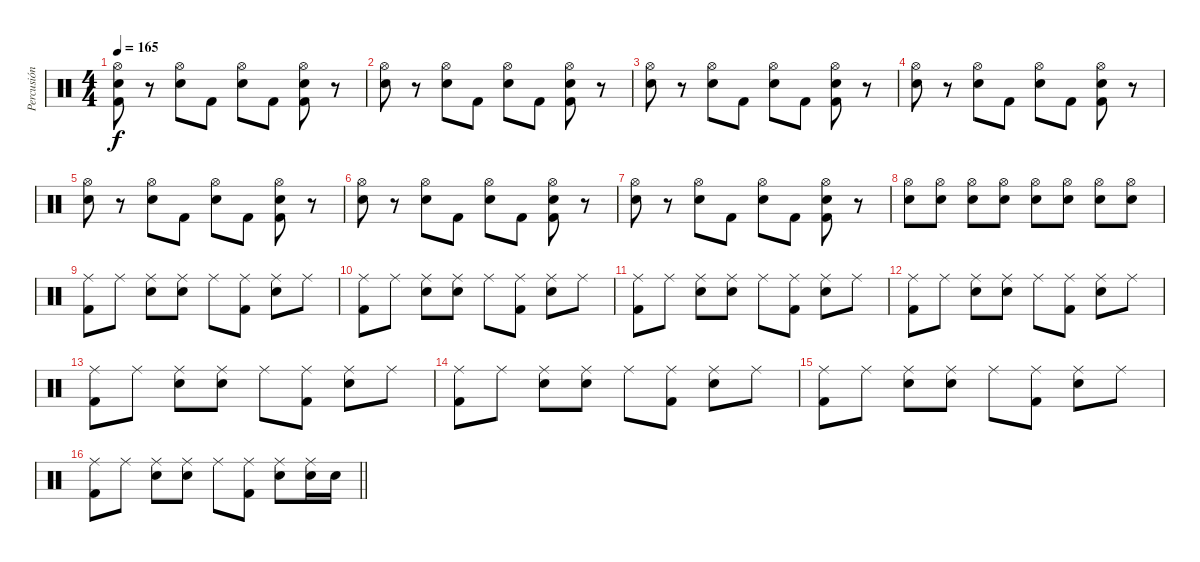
\track ("Percusión" "Percusión") {instrument percussion}
\staff {score}
\articulation defaults
\ts (4 4)
\tempo 165
\clef neutral
\ks c
("Snare (hit) 2" "Kick (hit) 2" "Hi-Hat (open)").8{dy f} r.8 ("Snare (hit) 2" "Hi-Hat (open)").8 "Kick (hit) 2".8 ("Snare (hit) 2" "Hi-Hat (open)").8 "Kick (hit) 2".8 ("Snare (hit) 2" "Kick (hit) 2" "Hi-Hat (open)").8 r.8 |
("Snare (hit) 2" "Hi-Hat (open)").8 r.8 ("Snare (hit) 2" "Hi-Hat (open)").8 "Kick (hit) 2".8 ("Snare (hit) 2" "Hi-Hat (open)").8 "Kick (hit) 2".8 ("Snare (hit) 2" "Kick (hit) 2" "Hi-Hat (open)").8 r.8 |
("Snare (hit) 2" "Hi-Hat (open)").8 r.8 ("Snare (hit) 2" "Hi-Hat (open)").8 "Kick (hit) 2".8 ("Snare (hit) 2" "Hi-Hat (open)").8 "Kick (hit) 2".8 ("Snare (hit) 2" "Kick (hit) 2" "Hi-Hat (open)").8 r.8 |
("Snare (hit) 2" "Hi-Hat (open)").8 r.8 ("Snare (hit) 2" "Hi-Hat (open)").8 "Kick (hit) 2".8 ("Snare (hit) 2" "Hi-Hat (open)").8 "Kick (hit) 2".8 ("Snare (hit) 2" "Kick (hit) 2" "Hi-Hat (open)").8 r.8 |
("Snare (hit) 2" "Hi-Hat (open)").8 r.8 ("Snare (hit) 2" "Hi-Hat (open)").8 "Kick (hit) 2".8 ("Snare (hit) 2" "Hi-Hat (open)").8 "Kick (hit) 2".8 ("Snare (hit) 2" "Kick (hit) 2" "Hi-Hat (open)").8 r.8 |
("Snare (hit) 2" "Hi-Hat (open)").8 r.8 ("Snare (hit) 2" "Hi-Hat (open)").8 "Kick (hit) 2".8 ("Snare (hit) 2" "Hi-Hat (open)").8 "Kick (hit) 2".8 ("Snare (hit) 2" "Kick (hit) 2" "Hi-Hat (open)").8 r.8 |
("Snare (hit) 2" "Hi-Hat (open)").8 r.8 ("Snare (hit) 2" "Hi-Hat (open)").8 "Kick (hit) 2".8 ("Snare (hit) 2" "Hi-Hat (open)").8 "Kick (hit) 2".8 ("Snare (hit) 2" "Kick (hit) 2" "Hi-Hat (open)").8 r.8 |
("Snare (hit) 2" "Hi-Hat (open)").8 ("Snare (hit) 2" "Hi-Hat (open)").8 ("Snare (hit) 2" "Hi-Hat (open)").8 ("Snare (hit) 2" "Hi-Hat (open)").8 ("Snare (hit) 2" "Hi-Hat (open)").8 ("Snare (hit) 2" "Hi-Hat (open)").8 ("Snare (hit) 2" "Hi-Hat (open)").8 ("Snare (hit) 2" "Hi-Hat (open)").8 |
("Kick (hit) 2" "Ride (middle)").8 "Ride (middle)".8 ("Snare (hit) 2" "Ride (middle)").8 ("Snare (hit) 2" "Ride (middle)").8 "Ride (middle)".8 ("Kick (hit) 2" "Ride (middle)").8 ("Snare (hit) 2" "Ride (middle)").8 "Ride (middle)".8 |
("Kick (hit) 2" "Ride (middle)").8 "Ride (middle)".8 ("Snare (hit) 2" "Ride (middle)").8 ("Snare (hit) 2" "Ride (middle)").8 "Ride (middle)".8 ("Kick (hit) 2" "Ride (middle)").8 ("Snare (hit) 2" "Ride (middle)").8 "Ride (middle)".8 |
("Kick (hit) 2" "Ride (middle)").8 "Ride (middle)".8 ("Snare (hit) 2" "Ride (middle)").8 ("Snare (hit) 2" "Ride (middle)").8 "Ride (middle)".8 ("Kick (hit) 2" "Ride (middle)").8 ("Snare (hit) 2" "Ride (middle)").8 "Ride (middle)".8 |
("Kick (hit) 2" "Ride (middle)").8 "Ride (middle)".8 ("Snare (hit) 2" "Ride (middle)").8 ("Snare (hit) 2" "Ride (middle)").8 "Ride (middle)".8 ("Kick (hit) 2" "Ride (middle)").8 ("Snare (hit) 2" "Ride (middle)").8 "Ride (middle)".8 |
("Kick (hit) 2" "Ride (middle)").8 "Ride (middle)".8 ("Snare (hit) 2" "Ride (middle)").8 ("Snare (hit) 2" "Ride (middle)").8 "Ride (middle)".8 ("Kick (hit) 2" "Ride (middle)").8 ("Snare (hit) 2" "Ride (middle)").8 "Ride (middle)".8 |
("Kick (hit) 2" "Ride (middle)").8 "Ride (middle)".8 ("Snare (hit) 2" "Ride (middle)").8 ("Snare (hit) 2" "Ride (middle)").8 "Ride (middle)".8 ("Kick (hit) 2" "Ride (middle)").8 ("Snare (hit) 2" "Ride (middle)").8 "Ride (middle)".8 |
("Kick (hit) 2" "Ride (middle)").8 "Ride (middle)".8 ("Snare (hit) 2" "Ride (middle)").8 ("Snare (hit) 2" "Ride (middle)").8 "Ride (middle)".8 ("Kick (hit) 2" "Ride (middle)").8 ("Snare (hit) 2" "Ride (middle)").8 "Ride (middle)".8 |
\barLineRight lightlight
("Kick (hit) 2" "Ride (middle)").8 "Ride (middle)".8 ("Snare (hit) 2" "Ride (middle)").8 ("Snare (hit) 2" "Ride (middle)").8 "Ride (middle)".8 ("Kick (hit) 2" "Ride (middle)").8 ("Snare (hit) 2" "Ride (middle)").8 ("Snare (hit) 2" "Ride (middle)").16 "Snare (hit) 2".16
